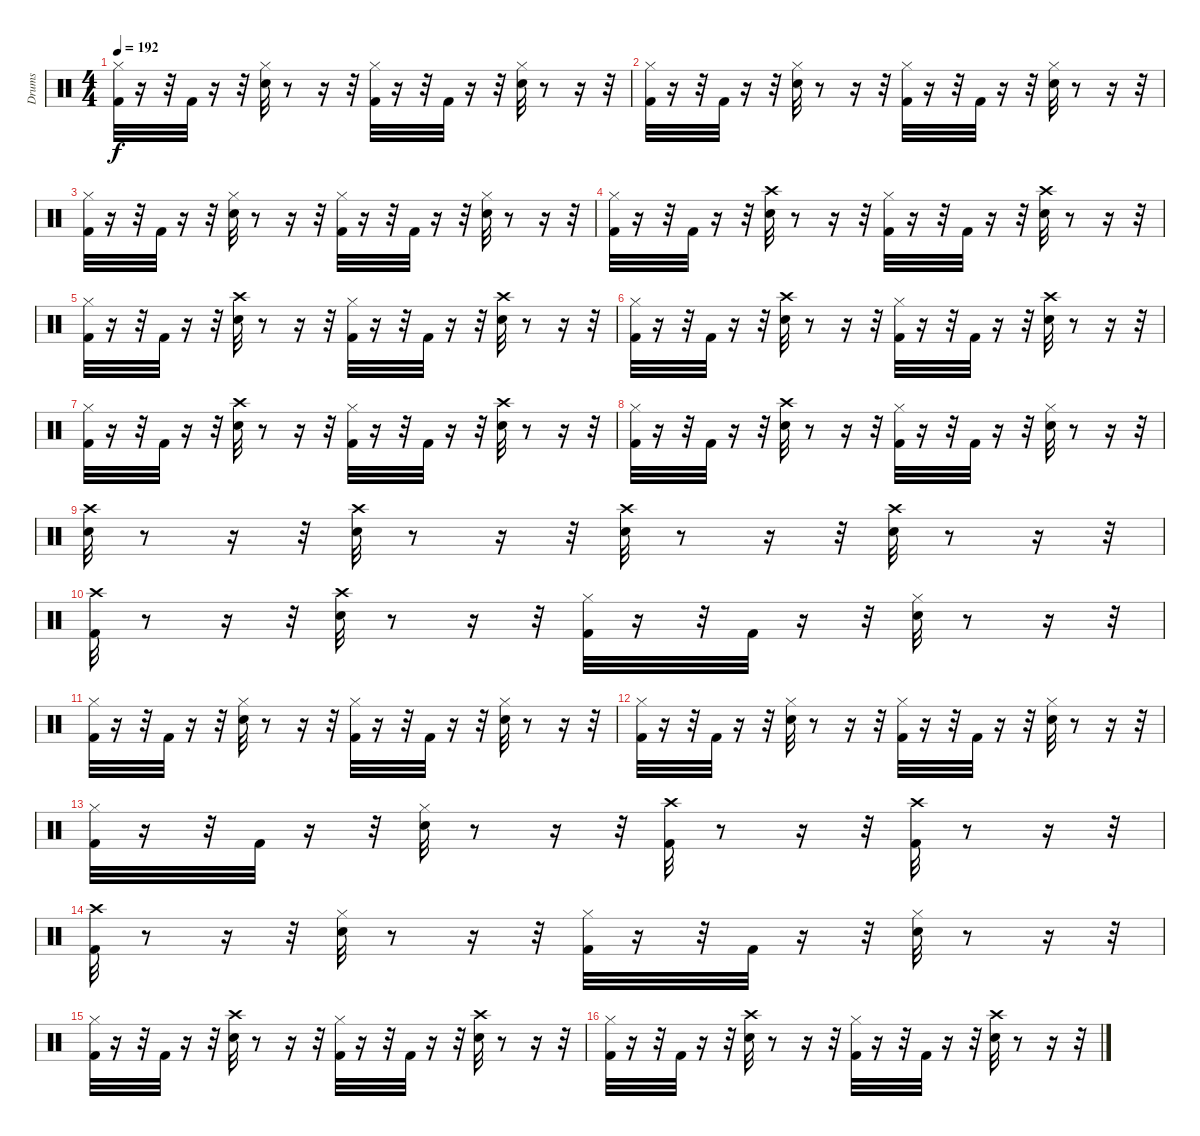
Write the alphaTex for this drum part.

\track ("Drums" "Drums") {instrument percussion}
\staff {score}
\articulation defaults
\ts (4 4)
\tempo 192
\clef neutral
\ks c
("Kick (hit) 2" "Hi-Hat (closed)").32{dy f} r.16 r.32 "Kick (hit) 2".32 r.16 r.32 ("Snare (hit) 2" "Hi-Hat (closed)").32 r.8 r.16 r.32 ("Kick (hit) 2" "Hi-Hat (closed)").32 r.16 r.32 "Kick (hit) 2".32 r.16 r.32 ("Snare (hit) 2" "Hi-Hat (closed)").32 r.8 r.16 r.32 |
("Kick (hit) 2" "Hi-Hat (closed)").32 r.16 r.32 "Kick (hit) 2".32 r.16 r.32 ("Snare (hit) 2" "Hi-Hat (closed)").32 r.8 r.16 r.32 ("Kick (hit) 2" "Hi-Hat (closed)").32 r.16 r.32 "Kick (hit) 2".32 r.16 r.32 ("Snare (hit) 2" "Hi-Hat (closed)").32 r.8 r.16 r.32 |
("Kick (hit) 2" "Hi-Hat (closed)").32 r.16 r.32 "Kick (hit) 2".32 r.16 r.32 ("Snare (hit) 2" "Hi-Hat (closed)").32 r.8 r.16 r.32 ("Kick (hit) 2" "Hi-Hat (closed)").32 r.16 r.32 "Kick (hit) 2".32 r.16 r.32 ("Snare (hit) 2" "Hi-Hat (closed)").32 r.8 r.16 r.32 |
("Kick (hit) 2" "Hi-Hat (closed)").32 r.16 r.32 "Kick (hit) 2".32 r.16 r.32 ("Crash high (hit)" "Snare (hit) 2").32 r.8 r.16 r.32 ("Kick (hit) 2" "Hi-Hat (closed)").32 r.16 r.32 "Kick (hit) 2".32 r.16 r.32 ("Crash high (hit)" "Snare (hit) 2").32 r.8 r.16 r.32 |
("Kick (hit) 2" "Hi-Hat (closed)").32 r.16 r.32 "Kick (hit) 2".32 r.16 r.32 ("Crash high (hit)" "Snare (hit) 2").32 r.8 r.16 r.32 ("Kick (hit) 2" "Hi-Hat (closed)").32 r.16 r.32 "Kick (hit) 2".32 r.16 r.32 ("Crash high (hit)" "Snare (hit) 2").32 r.8 r.16 r.32 |
("Kick (hit) 2" "Hi-Hat (closed)").32 r.16 r.32 "Kick (hit) 2".32 r.16 r.32 ("Crash high (hit)" "Snare (hit) 2").32 r.8 r.16 r.32 ("Kick (hit) 2" "Hi-Hat (closed)").32 r.16 r.32 "Kick (hit) 2".32 r.16 r.32 ("Crash high (hit)" "Snare (hit) 2").32 r.8 r.16 r.32 |
("Kick (hit) 2" "Hi-Hat (closed)").32 r.16 r.32 "Kick (hit) 2".32 r.16 r.32 ("Crash high (hit)" "Snare (hit) 2").32 r.8 r.16 r.32 ("Kick (hit) 2" "Hi-Hat (closed)").32 r.16 r.32 "Kick (hit) 2".32 r.16 r.32 ("Crash high (hit)" "Snare (hit) 2").32 r.8 r.16 r.32 |
("Kick (hit) 2" "Hi-Hat (closed)").32 r.16 r.32 "Kick (hit) 2".32 r.16 r.32 ("Crash high (hit)" "Snare (hit) 2").32 r.8 r.16 r.32 ("Kick (hit) 2" "Hi-Hat (closed)").32 r.16 r.32 "Kick (hit) 2".32 r.16 r.32 ("Hi-Hat (closed)" "Snare (hit) 2").32 r.8 r.16 r.32 |
("Crash high (hit)" "Snare (hit) 2").32 r.8 r.16 r.32 ("Crash high (hit)" "Snare (hit) 2").32 r.8 r.16 r.32 ("Crash high (hit)" "Snare (hit) 2").32 r.8 r.16 r.32 ("Crash high (hit)" "Snare (hit) 2").32 r.8 r.16 r.32 |
("Kick (hit) 2" "Crash high (hit)").32 r.8 r.16 r.32 ("Snare (hit) 2" "Crash high (hit)").32 r.8 r.16 r.32 ("Hi-Hat (closed)" "Kick (hit) 2").32 r.16 r.32 "Kick (hit) 2".32 r.16 r.32 ("Snare (hit) 2" "Hi-Hat (closed)").32 r.8 r.16 r.32 |
("Kick (hit) 2" "Hi-Hat (closed)").32 r.16 r.32 "Kick (hit) 2".32 r.16 r.32 ("Snare (hit) 2" "Hi-Hat (closed)").32 r.8 r.16 r.32 ("Kick (hit) 2" "Hi-Hat (closed)").32 r.16 r.32 "Kick (hit) 2".32 r.16 r.32 ("Snare (hit) 2" "Hi-Hat (closed)").32 r.8 r.16 r.32 |
("Kick (hit) 2" "Hi-Hat (closed)").32 r.16 r.32 "Kick (hit) 2".32 r.16 r.32 ("Snare (hit) 2" "Hi-Hat (closed)").32 r.8 r.16 r.32 ("Kick (hit) 2" "Hi-Hat (closed)").32 r.16 r.32 "Kick (hit) 2".32 r.16 r.32 ("Snare (hit) 2" "Hi-Hat (closed)").32 r.8 r.16 r.32 |
("Kick (hit) 2" "Hi-Hat (closed)").32 r.16 r.32 "Kick (hit) 2".32 r.16 r.32 ("Snare (hit) 2" "Hi-Hat (closed)").32 r.8 r.16 r.32 ("Crash high (hit)" "Kick (hit) 2").32 r.8 r.16 r.32 ("Crash high (hit)" "Kick (hit) 2").32 r.8 r.16 r.32 |
("Kick (hit) 2" "Crash high (hit)").32 r.8 r.16 r.32 ("Hi-Hat (closed)" "Snare (hit) 2").32 r.8 r.16 r.32 ("Hi-Hat (closed)" "Kick (hit) 2").32 r.16 r.32 "Kick (hit) 2".32 r.16 r.32 ("Hi-Hat (closed)" "Snare (hit) 2").32 r.8 r.16 r.32 |
("Kick (hit) 2" "Hi-Hat (closed)").32 r.16 r.32 "Kick (hit) 2".32 r.16 r.32 ("Crash high (hit)" "Snare (hit) 2").32 r.8 r.16 r.32 ("Kick (hit) 2" "Hi-Hat (closed)").32 r.16 r.32 "Kick (hit) 2".32 r.16 r.32 ("Crash high (hit)" "Snare (hit) 2").32 r.8 r.16 r.32 |
("Kick (hit) 2" "Hi-Hat (closed)").32 r.16 r.32 "Kick (hit) 2".32 r.16 r.32 ("Crash high (hit)" "Snare (hit) 2").32 r.8 r.16 r.32 ("Kick (hit) 2" "Hi-Hat (closed)").32 r.16 r.32 "Kick (hit) 2".32 r.16 r.32 ("Crash high (hit)" "Snare (hit) 2").32 r.8 r.16 r.32
